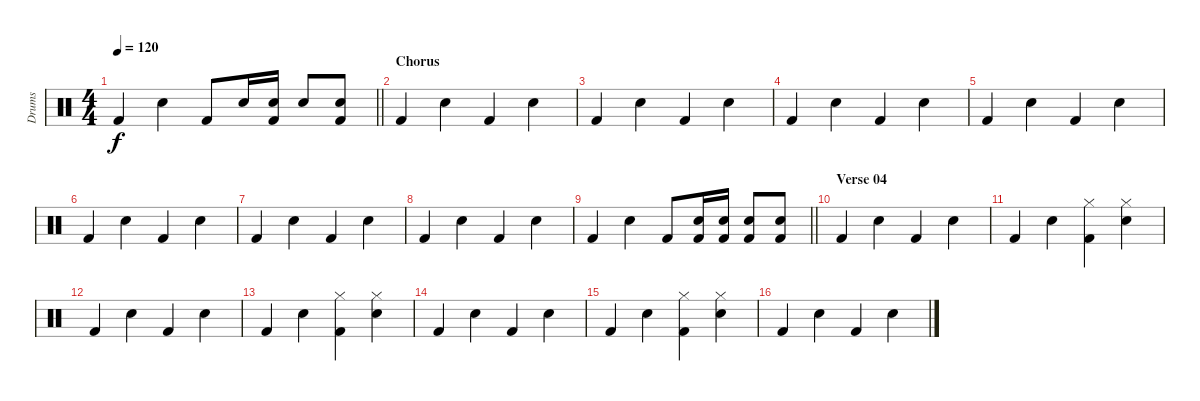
\track ("Drums" "Drums") {instrument percussion}
\staff {score}
\articulation defaults
\ts (4 4)
\tempo 120
\clef neutral
\barLineRight lightlight
\ks c "Kick (hit) 2".4{dy f} "Electric Snare (hit)".4 "Kick (hit) 2".8 "Electric Snare (hit)".16
("Electric Snare (hit)" "Kick (hit) 2").16 "Electric Snare (hit)".8 ("Electric Snare (hit)" "Kick (hit) 2").8 |
\section ("" "Chorus")
"Kick (hit) 2".4 "Electric Snare (hit)".4 "Kick (hit) 2".4 "Electric Snare (hit)".4 |
"Kick (hit) 2".4 "Electric Snare (hit)".4 "Kick (hit) 2".4 "Electric Snare (hit)".4 |
"Kick (hit) 2".4 "Electric Snare (hit)".4 "Kick (hit) 2".4 "Electric Snare (hit)".4 |
"Kick (hit) 2".4 "Electric Snare (hit)".4 "Kick (hit) 2".4 "Electric Snare (hit)".4 |
"Kick (hit) 2".4 "Electric Snare (hit)".4 "Kick (hit) 2".4 "Electric Snare (hit)".4 |
"Kick (hit) 2".4 "Electric Snare (hit)".4 "Kick (hit) 2".4 "Electric Snare (hit)".4 |
"Kick (hit) 2".4 "Electric Snare (hit)".4 "Kick (hit) 2".4 "Electric Snare (hit)".4 |
\barLineRight lightlight "Kick (hit) 2".4 "Electric Snare (hit)".4 "Kick (hit) 2".8
("Electric Snare (hit)" "Kick (hit) 2").16 ("Electric Snare (hit)" "Kick (hit) 2").16 ("Electric Snare (hit)" "Kick (hit) 2").8 ("Electric Snare (hit)" "Kick (hit) 2").8 |
\section ("" "Verse 04")
"Kick (hit) 2".4 "Electric Snare (hit)".4 "Kick (hit) 2".4 "Electric Snare (hit)".4 |
"Kick (hit) 2".4 "Electric Snare (hit)".4 ("Kick (hit) 2" "Hi-Hat (closed)").4 ("Electric Snare (hit)" "Hi-Hat (closed)").4 |
"Kick (hit) 2".4 "Electric Snare (hit)".4 "Kick (hit) 2".4 "Electric Snare (hit)".4 |
"Kick (hit) 2".4 "Electric Snare (hit)".4 ("Kick (hit) 2" "Hi-Hat (closed)").4 ("Electric Snare (hit)" "Hi-Hat (closed)").4 |
"Kick (hit) 2".4 "Electric Snare (hit)".4 "Kick (hit) 2".4 "Electric Snare (hit)".4 |
"Kick (hit) 2".4 "Electric Snare (hit)".4 ("Kick (hit) 2" "Hi-Hat (closed)").4 ("Electric Snare (hit)" "Hi-Hat (closed)").4 |
"Kick (hit) 2".4 "Electric Snare (hit)".4 "Kick (hit) 2".4 "Electric Snare (hit)".4
